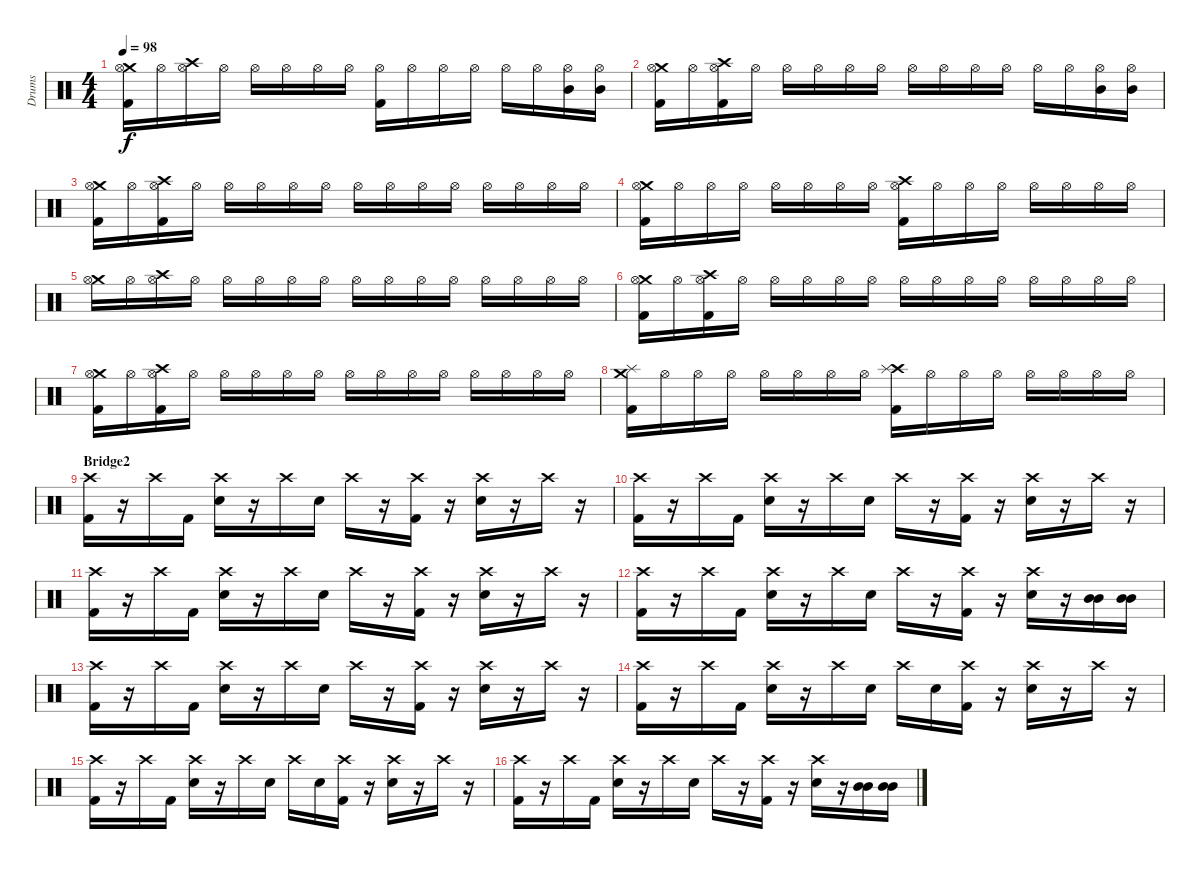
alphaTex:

\track ("Drums" "Drums") {instrument percussion}
\staff {score}
\articulation defaults
\ts (4 4)
\tempo 98
\clef neutral
\ks c
("Crash medium (hit)" "Hi-Hat (open)" "Kick (hit) 2").16{dy f} "Hi-Hat (open)".16 ("Crash high (hit)" "Hi-Hat (open)").16 "Hi-Hat (open)".16 "Hi-Hat (open)".16 "Hi-Hat (open)".16 "Hi-Hat (open)".16 "Hi-Hat (open)".16 ("Hi-Hat (open)" "Kick (hit) 2").16 "Hi-Hat (open)".16 "Hi-Hat (open)".16 "Hi-Hat (open)".16 "Hi-Hat (open)".16 "Hi-Hat (open)".16 ("Hi-Hat (open)" "Mid Tom (hit)").16 ("Hi-Hat (open)" "Mid Tom (hit)").16 |
("Crash medium (hit)" "Hi-Hat (open)" "Kick (hit) 2").16 "Hi-Hat (open)".16 ("Crash high (hit)" "Hi-Hat (open)" "Kick (hit) 2").16 "Hi-Hat (open)".16 "Hi-Hat (open)".16 "Hi-Hat (open)".16 "Hi-Hat (open)".16 "Hi-Hat (open)".16 "Hi-Hat (open)".16 "Hi-Hat (open)".16 "Hi-Hat (open)".16 "Hi-Hat (open)".16 "Hi-Hat (open)".16 "Hi-Hat (open)".16 ("Hi-Hat (open)" "Mid Tom (hit)").16 ("Hi-Hat (open)" "Mid Tom (hit)").16 |
("Crash medium (hit)" "Hi-Hat (open)" "Kick (hit) 2").16 "Hi-Hat (open)".16 ("Crash high (hit)" "Hi-Hat (open)" "Kick (hit) 2").16 "Hi-Hat (open)".16 "Hi-Hat (open)".16 "Hi-Hat (open)".16 "Hi-Hat (open)".16 "Hi-Hat (open)".16 "Hi-Hat (open)".16 "Hi-Hat (open)".16 "Hi-Hat (open)".16 "Hi-Hat (open)".16 "Hi-Hat (open)".16 "Hi-Hat (open)".16 "Hi-Hat (open)".16 "Hi-Hat (open)".16 |
("Crash medium (hit)" "Hi-Hat (open)" "Kick (hit) 2").16 "Hi-Hat (open)".16 "Hi-Hat (open)".16 "Hi-Hat (open)".16 "Hi-Hat (open)".16 "Hi-Hat (open)".16 "Hi-Hat (open)".16 "Hi-Hat (open)".16 ("Crash high (hit)" "Hi-Hat (open)" "Kick (hit) 2").16 "Hi-Hat (open)".16 "Hi-Hat (open)".16 "Hi-Hat (open)".16 "Hi-Hat (open)".16 "Hi-Hat (open)".16 "Hi-Hat (open)".16 "Hi-Hat (open)".16 |
("Crash medium (hit)" "Hi-Hat (open)").16 "Hi-Hat (open)".16 ("Crash high (hit)" "Hi-Hat (open)").16 "Hi-Hat (open)".16 "Hi-Hat (open)".16 "Hi-Hat (open)".16 "Hi-Hat (open)".16 "Hi-Hat (open)".16 "Hi-Hat (open)".16 "Hi-Hat (open)".16 "Hi-Hat (open)".16 "Hi-Hat (open)".16 "Hi-Hat (open)".16 "Hi-Hat (open)".16 "Hi-Hat (open)".16 "Hi-Hat (open)".16 |
("Crash medium (hit)" "Hi-Hat (open)" "Kick (hit) 2").16 "Hi-Hat (open)".16 ("Crash high (hit)" "Hi-Hat (open)" "Kick (hit) 2").16 "Hi-Hat (open)".16 "Hi-Hat (open)".16 "Hi-Hat (open)".16 "Hi-Hat (open)".16 "Hi-Hat (open)".16 "Hi-Hat (open)".16 "Hi-Hat (open)".16 "Hi-Hat (open)".16 "Hi-Hat (open)".16 "Hi-Hat (open)".16 "Hi-Hat (open)".16 "Hi-Hat (open)".16 "Hi-Hat (open)".16 |
("Crash medium (hit)" "Hi-Hat (open)" "Kick (hit) 2").16 "Hi-Hat (open)".16 ("Crash high (hit)" "Hi-Hat (open)" "Kick (hit) 2").16 "Hi-Hat (open)".16 "Hi-Hat (open)".16 "Hi-Hat (open)".16 "Hi-Hat (open)".16 "Hi-Hat (open)".16 "Hi-Hat (open)".16 "Hi-Hat (open)".16 "Hi-Hat (open)".16 "Hi-Hat (open)".16 "Hi-Hat (open)".16 "Hi-Hat (open)".16 "Hi-Hat (open)".16 "Hi-Hat (open)".16 |
("Crash medium (hit)" "Splash (hit)" "Kick (hit) 2").16 "Hi-Hat (open)".16 "Hi-Hat (open)".16 "Hi-Hat (open)".16 "Hi-Hat (open)".16 "Hi-Hat (open)".16 "Hi-Hat (open)".16 "Hi-Hat (open)".16 ("Crash high (hit)" "Splash (hit)" "Kick (hit) 2").16 "Hi-Hat (open)".16 "Hi-Hat (open)".16 "Hi-Hat (open)".16 "Hi-Hat (open)".16 "Hi-Hat (open)".16 "Hi-Hat (open)".16 "Hi-Hat (open)".16 |
\section ("" "Bridge2")
("Crash high (hit)" "Kick (hit) 2").16 r.16 "Crash high (hit)".16 "Kick (hit) 2".16 ("Crash high (hit)" "Snare (hit) 2").16 r.16 "Crash high (hit)".16 "Snare (hit) 2".16 "Crash high (hit)".16 r.16 ("Crash high (hit)" "Kick (hit) 2").16 r.16 ("Crash high (hit)" "Snare (hit) 2").16 r.16 "Crash high (hit)".16 r.16 |
("Crash high (hit)" "Kick (hit) 2").16 r.16 "Crash high (hit)".16 "Kick (hit) 2".16 ("Crash high (hit)" "Snare (hit) 2").16 r.16 "Crash high (hit)".16 "Snare (hit) 2".16 "Crash high (hit)".16 r.16 ("Crash high (hit)" "Kick (hit) 2").16 r.16 ("Crash high (hit)" "Snare (hit) 2").16 r.16 "Crash high (hit)".16 r.16 |
("Crash high (hit)" "Kick (hit) 2").16 r.16 "Crash high (hit)".16 "Kick (hit) 2".16 ("Crash high (hit)" "Snare (hit) 2").16 r.16 "Crash high (hit)".16 "Snare (hit) 2".16 "Crash high (hit)".16 r.16 ("Crash high (hit)" "Kick (hit) 2").16 r.16 ("Crash high (hit)" "Snare (hit) 2").16 r.16 "Crash high (hit)".16 r.16 |
("Crash high (hit)" "Kick (hit) 2").16 r.16 "Crash high (hit)".16 "Kick (hit) 2".16 ("Crash high (hit)" "Snare (hit) 2").16 r.16 "Crash high (hit)".16 "Snare (hit) 2".16 "Crash high (hit)".16 r.16 ("Crash high (hit)" "Kick (hit) 2").16 r.16 ("Crash high (hit)" "Snare (hit) 2").16 r.16 ("Mid Tom (hit)" "Mid Tom (hit)").16 ("Mid Tom (hit)" "Mid Tom (hit)").16 |
("Crash high (hit)" "Kick (hit) 2").16 r.16 "Crash high (hit)".16 "Kick (hit) 2".16 ("Crash high (hit)" "Snare (hit) 2").16 r.16 "Crash high (hit)".16 "Snare (hit) 2".16 "Crash high (hit)".16 r.16 ("Crash high (hit)" "Kick (hit) 2").16 r.16 ("Crash high (hit)" "Snare (hit) 2").16 r.16 "Crash high (hit)".16 r.16 |
("Crash high (hit)" "Kick (hit) 2").16 r.16 "Crash high (hit)".16 "Kick (hit) 2".16 ("Crash high (hit)" "Snare (hit) 2").16 r.16 "Crash high (hit)".16 "Snare (hit) 2".16 "Crash high (hit)".16 "Snare (hit) 2".16 ("Crash high (hit)" "Kick (hit) 2").16 r.16 ("Crash high (hit)" "Snare (hit) 2").16 r.16 "Crash high (hit)".16 r.16 |
("Crash high (hit)" "Kick (hit) 2").16 r.16 "Crash high (hit)".16 "Kick (hit) 2".16 ("Crash high (hit)" "Snare (hit) 2").16 r.16 "Crash high (hit)".16 "Snare (hit) 2".16 "Crash high (hit)".16 "Snare (hit) 2".16 ("Crash high (hit)" "Kick (hit) 2").16 r.16 ("Crash high (hit)" "Snare (hit) 2").16 r.16 "Crash high (hit)".16 r.16 |
("Crash high (hit)" "Kick (hit) 2").16 r.16 "Crash high (hit)".16 "Kick (hit) 2".16 ("Crash high (hit)" "Snare (hit) 2").16 r.16 "Crash high (hit)".16 "Snare (hit) 2".16 "Crash high (hit)".16 r.16 ("Crash high (hit)" "Kick (hit) 2").16 r.16 ("Crash high (hit)" "Snare (hit) 2").16 r.16 ("Mid Tom (hit)" "Mid Tom (hit)").16 ("Mid Tom (hit)" "Mid Tom (hit)").16
